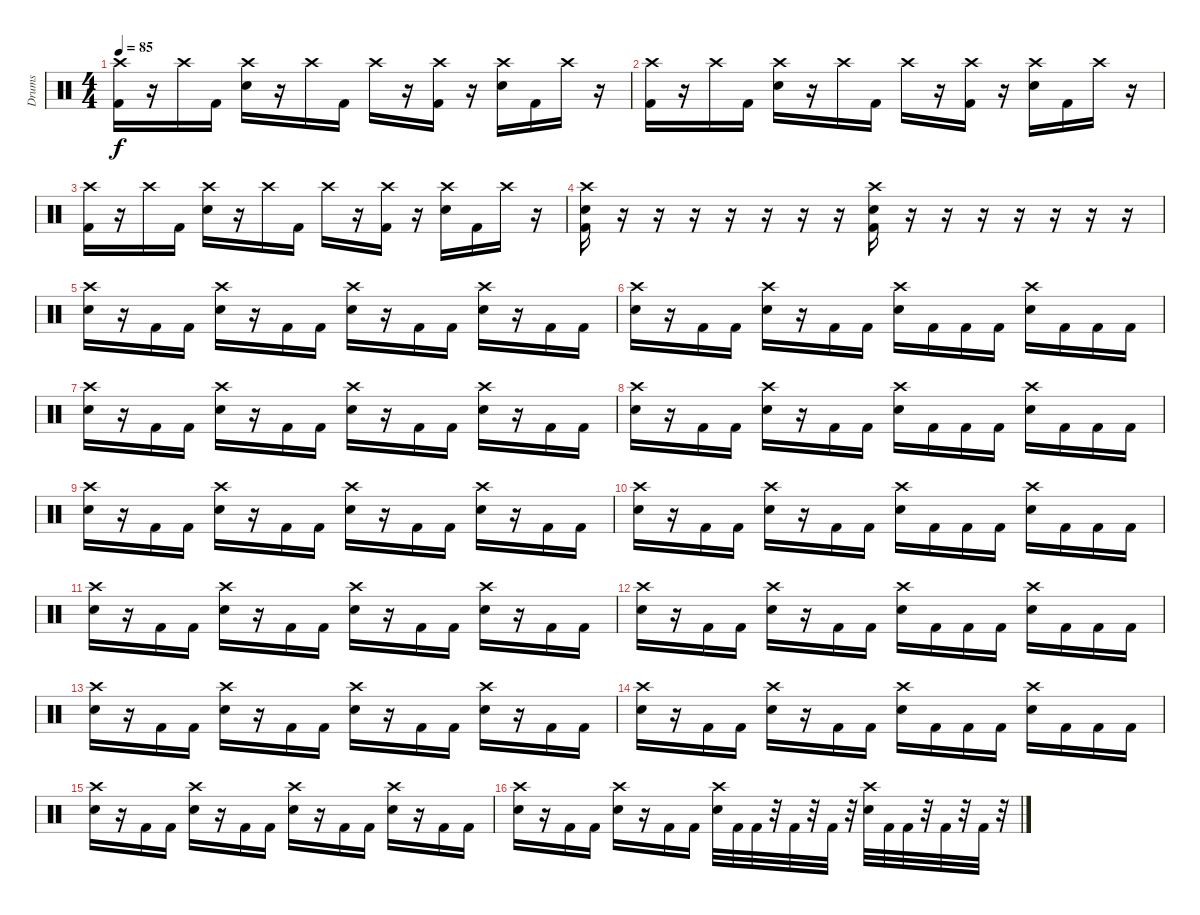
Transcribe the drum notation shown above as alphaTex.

\track ("Drums" "Drums") {instrument percussion}
\staff {score}
\articulation defaults
\ts (4 4)
\tempo 85
\clef neutral
\ks c
("Crash high (hit)" "Kick (hit) 2").16{dy f} r.16 "Crash high (hit)".16 "Kick (hit) 2".16 ("Crash high (hit)" "Electric Snare (hit)").16 r.16 "Crash high (hit)".16 "Kick (hit) 2".16 "Crash high (hit)".16 r.16 ("Crash high (hit)" "Kick (hit) 2").16 r.16 ("Crash high (hit)" "Electric Snare (hit)").16 "Kick (hit) 2".16 "Crash high (hit)".16 r.16 |
("Crash high (hit)" "Kick (hit) 2").16 r.16 "Crash high (hit)".16 "Kick (hit) 2".16 ("Crash high (hit)" "Electric Snare (hit)").16 r.16 "Crash high (hit)".16 "Kick (hit) 2".16 "Crash high (hit)".16 r.16 ("Crash high (hit)" "Kick (hit) 2").16 r.16 ("Crash high (hit)" "Electric Snare (hit)").16 "Kick (hit) 2".16 "Crash high (hit)".16 r.16 |
("Crash high (hit)" "Kick (hit) 2").16 r.16 "Crash high (hit)".16 "Kick (hit) 2".16 ("Crash high (hit)" "Electric Snare (hit)").16 r.16 "Crash high (hit)".16 "Kick (hit) 2".16 "Crash high (hit)".16 r.16 ("Crash high (hit)" "Kick (hit) 2").16 r.16 ("Crash high (hit)" "Electric Snare (hit)").16 "Kick (hit) 2".16 "Crash high (hit)".16 r.16 |
("Crash high (hit)" "Electric Snare (hit)" "Kick (hit) 2").16 r.16 r.16 r.16 r.16 r.16 r.16 r.16 ("Crash high (hit)" "Electric Snare (hit)" "Kick (hit) 2").16 r.16 r.16 r.16 r.16 r.16 r.16 r.16 |
("Crash high (hit)" "Electric Snare (hit)").16 r.16 "Kick (hit) 2".16 "Kick (hit) 2".16 ("Crash high (hit)" "Electric Snare (hit)").16 r.16 "Kick (hit) 2".16 "Kick (hit) 2".16 ("Crash high (hit)" "Electric Snare (hit)").16 r.16 "Kick (hit) 2".16 "Kick (hit) 2".16 ("Crash high (hit)" "Electric Snare (hit)").16 r.16 "Kick (hit) 2".16 "Kick (hit) 2".16 |
("Crash high (hit)" "Electric Snare (hit)").16 r.16 "Kick (hit) 2".16 "Kick (hit) 2".16 ("Crash high (hit)" "Electric Snare (hit)").16 r.16 "Kick (hit) 2".16 "Kick (hit) 2".16 ("Crash high (hit)" "Electric Snare (hit)").16 "Kick (hit) 2".16 "Kick (hit) 2".16 "Kick (hit) 2".16 ("Crash high (hit)" "Electric Snare (hit)").16 "Kick (hit) 2".16 "Kick (hit) 2".16 "Kick (hit) 2".16 |
("Crash high (hit)" "Electric Snare (hit)").16 r.16 "Kick (hit) 2".16 "Kick (hit) 2".16 ("Crash high (hit)" "Electric Snare (hit)").16 r.16 "Kick (hit) 2".16 "Kick (hit) 2".16 ("Crash high (hit)" "Electric Snare (hit)").16 r.16 "Kick (hit) 2".16 "Kick (hit) 2".16 ("Crash high (hit)" "Electric Snare (hit)").16 r.16 "Kick (hit) 2".16 "Kick (hit) 2".16 |
("Crash high (hit)" "Electric Snare (hit)").16 r.16 "Kick (hit) 2".16 "Kick (hit) 2".16 ("Crash high (hit)" "Electric Snare (hit)").16 r.16 "Kick (hit) 2".16 "Kick (hit) 2".16 ("Crash high (hit)" "Electric Snare (hit)").16 "Kick (hit) 2".16 "Kick (hit) 2".16 "Kick (hit) 2".16 ("Crash high (hit)" "Electric Snare (hit)").16 "Kick (hit) 2".16 "Kick (hit) 2".16 "Kick (hit) 2".16 |
("Crash high (hit)" "Electric Snare (hit)").16 r.16 "Kick (hit) 2".16 "Kick (hit) 2".16 ("Crash high (hit)" "Electric Snare (hit)").16 r.16 "Kick (hit) 2".16 "Kick (hit) 2".16 ("Crash high (hit)" "Electric Snare (hit)").16 r.16 "Kick (hit) 2".16 "Kick (hit) 2".16 ("Crash high (hit)" "Electric Snare (hit)").16 r.16 "Kick (hit) 2".16 "Kick (hit) 2".16 |
("Crash high (hit)" "Electric Snare (hit)").16 r.16 "Kick (hit) 2".16 "Kick (hit) 2".16 ("Crash high (hit)" "Electric Snare (hit)").16 r.16 "Kick (hit) 2".16 "Kick (hit) 2".16 ("Crash high (hit)" "Electric Snare (hit)").16 "Kick (hit) 2".16 "Kick (hit) 2".16 "Kick (hit) 2".16 ("Crash high (hit)" "Electric Snare (hit)").16 "Kick (hit) 2".16 "Kick (hit) 2".16 "Kick (hit) 2".16 |
("Crash high (hit)" "Electric Snare (hit)").16 r.16 "Kick (hit) 2".16 "Kick (hit) 2".16 ("Crash high (hit)" "Electric Snare (hit)").16 r.16 "Kick (hit) 2".16 "Kick (hit) 2".16 ("Crash high (hit)" "Electric Snare (hit)").16 r.16 "Kick (hit) 2".16 "Kick (hit) 2".16 ("Crash high (hit)" "Electric Snare (hit)").16 r.16 "Kick (hit) 2".16 "Kick (hit) 2".16 |
("Crash high (hit)" "Electric Snare (hit)").16 r.16 "Kick (hit) 2".16 "Kick (hit) 2".16 ("Crash high (hit)" "Electric Snare (hit)").16 r.16 "Kick (hit) 2".16 "Kick (hit) 2".16 ("Crash high (hit)" "Electric Snare (hit)").16 "Kick (hit) 2".16 "Kick (hit) 2".16 "Kick (hit) 2".16 ("Crash high (hit)" "Electric Snare (hit)").16 "Kick (hit) 2".16 "Kick (hit) 2".16 "Kick (hit) 2".16 |
("Crash high (hit)" "Electric Snare (hit)").16 r.16 "Kick (hit) 2".16 "Kick (hit) 2".16 ("Crash high (hit)" "Electric Snare (hit)").16 r.16 "Kick (hit) 2".16 "Kick (hit) 2".16 ("Crash high (hit)" "Electric Snare (hit)").16 r.16 "Kick (hit) 2".16 "Kick (hit) 2".16 ("Crash high (hit)" "Electric Snare (hit)").16 r.16 "Kick (hit) 2".16 "Kick (hit) 2".16 |
("Crash high (hit)" "Electric Snare (hit)").16 r.16 "Kick (hit) 2".16 "Kick (hit) 2".16 ("Crash high (hit)" "Electric Snare (hit)").16 r.16 "Kick (hit) 2".16 "Kick (hit) 2".16 ("Crash high (hit)" "Electric Snare (hit)").16 "Kick (hit) 2".16 "Kick (hit) 2".16 "Kick (hit) 2".16 ("Crash high (hit)" "Electric Snare (hit)").16 "Kick (hit) 2".16 "Kick (hit) 2".16 "Kick (hit) 2".16 |
("Crash high (hit)" "Electric Snare (hit)").16 r.16 "Kick (hit) 2".16 "Kick (hit) 2".16 ("Crash high (hit)" "Electric Snare (hit)").16 r.16 "Kick (hit) 2".16 "Kick (hit) 2".16 ("Crash high (hit)" "Electric Snare (hit)").16 r.16 "Kick (hit) 2".16 "Kick (hit) 2".16 ("Crash high (hit)" "Electric Snare (hit)").16 r.16 "Kick (hit) 2".16 "Kick (hit) 2".16 |
("Crash high (hit)" "Electric Snare (hit)").16 r.16 "Kick (hit) 2".16 "Kick (hit) 2".16 ("Crash high (hit)" "Electric Snare (hit)").16 r.16 "Kick (hit) 2".16 "Kick (hit) 2".16 ("Crash high (hit)" "Electric Snare (hit)").32 "Kick (hit) 2".32 "Kick (hit) 2".32 r.32 "Kick (hit) 2".32 r.32 "Kick (hit) 2".32 r.32 ("Crash high (hit)" "Electric Snare (hit)").32 "Kick (hit) 2".32 "Kick (hit) 2".32 r.32 "Kick (hit) 2".32 r.32 "Kick (hit) 2".32 r.32
